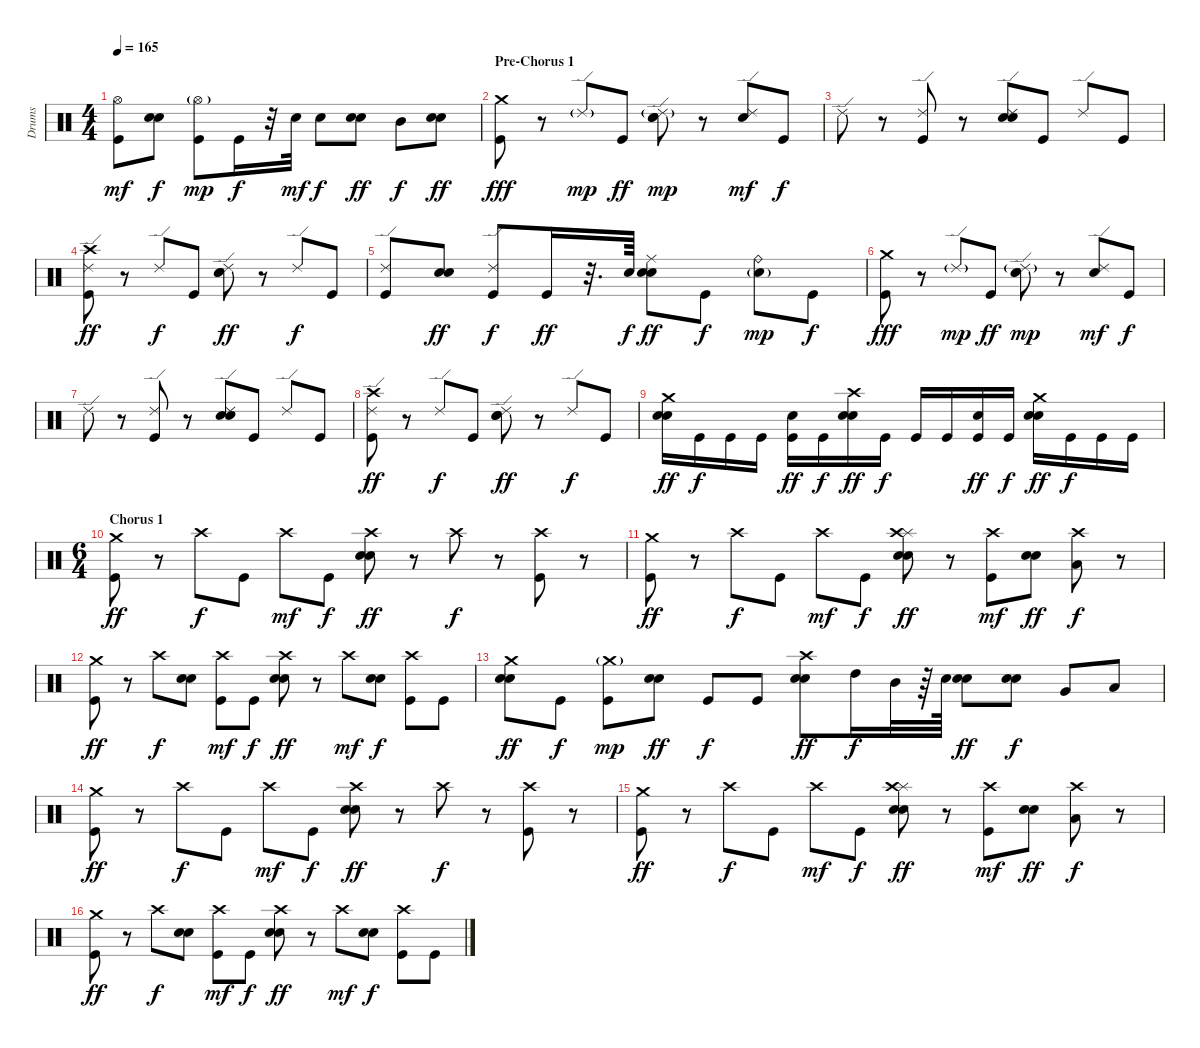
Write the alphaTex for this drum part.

\track ("Drums" "Drums") {instrument percussion}
\staff {score}
\articulation defaults
\ts (4 4)
\tempo 165
\clef neutral
\ks c
("Kick (hit)" "Hi-Hat (open)").8{dy mf} ("Electric Snare (hit)" "Electric Snare (hit)").8{dy f} ("Kick (hit)" "Hi-Hat (open)"{g}).8{dy mp} "Kick (hit)".16{dy f} r.32 "Electric Snare (hit)".32{dy mf} "Electric Snare (hit)".8{dy f} ("Electric Snare (hit)" "Electric Snare (hit)").8{dy ff} "Mid Tom (hit)".8{dy f} ("Electric Snare (hit)" "Electric Snare (hit)").8{dy ff} |
\section ("" "Pre-Chorus 1")
("Kick (hit)" "Crash medium (hit)").8{dy fff} r.8 "Ride (edge) 2"{g}.8{dy mp} "Kick (hit)".8{dy ff} ("Electric Snare (hit)" "Electric Snare (hit)" "Ride (edge) 2"{g}).8{dy mp} r.8 ("Electric Snare (hit)" "Ride (edge) 2").8{dy mf} "Kick (hit)".8{dy f} |
"Ride (edge) 2".8 r.8 ("Kick (hit)" "Ride (edge) 2").8 r.8 ("Electric Snare (hit)" "Electric Snare (hit)" "Ride (edge) 2").8 "Kick (hit)".8 "Ride (edge) 2".8 "Kick (hit)".8 |
("Kick (hit)" "Ride (edge) 2" "Crash high (hit)").8{dy ff} r.8 "Ride (edge) 2".8{dy f} "Kick (hit)".8 ("Electric Snare (hit)" "Electric Snare (hit)" "Ride (edge) 2").8{dy ff} r.8 "Ride (edge) 2".8{dy f} "Kick (hit)".8 |
("Kick (hit)" "Ride (edge) 2").8 ("Electric Snare (hit)" "Electric Snare (hit)").8{dy ff} ("Kick (hit)" "Ride (edge) 2").8{dy f} "Kick (hit)".16{dy ff} r.32{d} "Electric Snare (hit)".64{dy f} ("Electric Snare (hit)" "Electric Snare (hit)" "Ride (middle)").8{dy ff} "Kick (hit)".8{dy f} ("Electric Snare (hit)"{g} "Ride (bell)").8{dy mp} "Kick (hit)".8{dy f} |
("Kick (hit)" "Crash medium (hit)").8{dy fff} r.8 "Ride (edge) 2"{g}.8{dy mp} "Kick (hit)".8{dy ff} ("Electric Snare (hit)" "Electric Snare (hit)" "Ride (edge) 2"{g}).8{dy mp} r.8 ("Electric Snare (hit)" "Ride (edge) 2").8{dy mf} "Kick (hit)".8{dy f} |
"Ride (edge) 2".8 r.8 ("Kick (hit)" "Ride (edge) 2").8 r.8 ("Electric Snare (hit)" "Electric Snare (hit)" "Ride (edge) 2").8 "Kick (hit)".8 "Ride (edge) 2".8 "Kick (hit)".8 |
("Kick (hit)" "Ride (edge) 2" "Crash high (hit)").8{dy ff} r.8 "Ride (edge) 2".8{dy f} "Kick (hit)".8 ("Electric Snare (hit)" "Electric Snare (hit)" "Ride (edge) 2").8{dy ff} r.8 "Ride (edge) 2".8{dy f} "Kick (hit)".8 |
("Electric Snare (hit)" "Electric Snare (hit)" "Crash medium (hit)").16{dy ff} "Kick (hit)".16{dy f} "Kick (hit)".16 "Kick (hit)".16 ("Kick (hit)" "Electric Snare (hit)").16{dy ff} "Kick (hit)".16{dy f} ("Electric Snare (hit)" "Electric Snare (hit)" "Crash high (hit)").16{dy ff} "Kick (hit)".16{dy f} "Kick (hit)".16 "Kick (hit)".16 ("Kick (hit)" "Electric Snare (hit)").16{dy ff} "Kick (hit)".16{dy f} ("Electric Snare (hit)" "Electric Snare (hit)" "Crash medium (hit)").16{dy ff} "Kick (hit)".16{dy f} "Kick (hit)".16 "Kick (hit)".16 |
\ts (6 4)
\section ("" "Chorus 1")
("Kick (hit)" "Crash medium (hit)").8{dy ff} r.8 "Crash high (hit)".8{dy f} "Kick (hit)".8 "Crash high (hit)".8{dy mf} "Kick (hit)".8{dy f} ("Electric Snare (hit)" "Electric Snare (hit)" "Crash high (hit)").8{dy ff} r.8 "Crash high (hit)".8{dy f} r.8 ("Kick (hit)" "Crash high (hit)").8 r.8 |
("Kick (hit)" "Crash medium (hit)").8{dy ff} r.8 "Crash high (hit)".8{dy f} "Kick (hit)".8 "Crash high (hit)".8{dy mf} "Kick (hit)".8{dy f} ("Electric Snare (hit)" "Electric Snare (hit)" "Splash (hit)" "Crash high (hit)").8{dy ff} r.8 ("Kick (hit)" "Crash high (hit)").8{dy mf} ("Electric Snare (hit)" "Electric Snare (hit)").8{dy ff} ("Low Floor Tom (hit)" "Crash high (hit)").8{dy f} r.8 |
("Kick (hit)" "Crash medium (hit)").8{dy ff} r.8 "Crash high (hit)".8{dy f} ("Electric Snare (hit)" "Electric Snare (hit)").8 ("Kick (hit)" "Crash high (hit)").8{dy mf} "Kick (hit)".8{dy f} ("Electric Snare (hit)" "Electric Snare (hit)" "Crash high (hit)").8{dy ff} r.8 "Crash high (hit)".8{dy mf} ("Electric Snare (hit)" "Electric Snare (hit)").8{dy f} ("Kick (hit)" "Crash high (hit)").8 "Kick (hit)".8 |
("Electric Snare (hit)" "Electric Snare (hit)" "Crash medium (hit)").8{dy ff} "Kick (hit)".8{dy f} ("Kick (hit)" "Crash medium (hit)"{g}).8{dy mp} ("Electric Snare (hit)" "Electric Snare (hit)").8{dy ff} "Kick (hit)".8{dy f} "Kick (hit)".8 ("Electric Snare (hit)" "Electric Snare (hit)" "Crash high (hit)").8{dy ff} "High Tom (hit)".16{dy f} "Mid Tom (hit)".32 r.64 "Electric Snare (hit)".64 ("Electric Snare (hit)" "Electric Snare (hit)").8{dy ff} ("Electric Snare (hit)" "Electric Snare (hit)").8{dy f} "Very Low Tom (hit)".8 "Low Floor Tom (hit)".8 |
("Kick (hit)" "Crash medium (hit)").8{dy ff} r.8 "Crash high (hit)".8{dy f} "Kick (hit)".8 "Crash high (hit)".8{dy mf} "Kick (hit)".8{dy f} ("Electric Snare (hit)" "Electric Snare (hit)" "Crash high (hit)").8{dy ff} r.8 "Crash high (hit)".8{dy f} r.8 ("Kick (hit)" "Crash high (hit)").8 r.8 |
("Kick (hit)" "Crash medium (hit)").8{dy ff} r.8 "Crash high (hit)".8{dy f} "Kick (hit)".8 "Crash high (hit)".8{dy mf} "Kick (hit)".8{dy f} ("Electric Snare (hit)" "Electric Snare (hit)" "Splash (hit)" "Crash high (hit)").8{dy ff} r.8 ("Kick (hit)" "Crash high (hit)").8{dy mf} ("Electric Snare (hit)" "Electric Snare (hit)").8{dy ff} ("Low Floor Tom (hit)" "Crash high (hit)").8{dy f} r.8 |
("Kick (hit)" "Crash medium (hit)").8{dy ff} r.8 "Crash high (hit)".8{dy f} ("Electric Snare (hit)" "Electric Snare (hit)").8 ("Kick (hit)" "Crash high (hit)").8{dy mf} "Kick (hit)".8{dy f} ("Electric Snare (hit)" "Electric Snare (hit)" "Crash high (hit)").8{dy ff} r.8 "Crash high (hit)".8{dy mf} ("Electric Snare (hit)" "Electric Snare (hit)").8{dy f} ("Kick (hit)" "Crash high (hit)").8 "Kick (hit)".8
